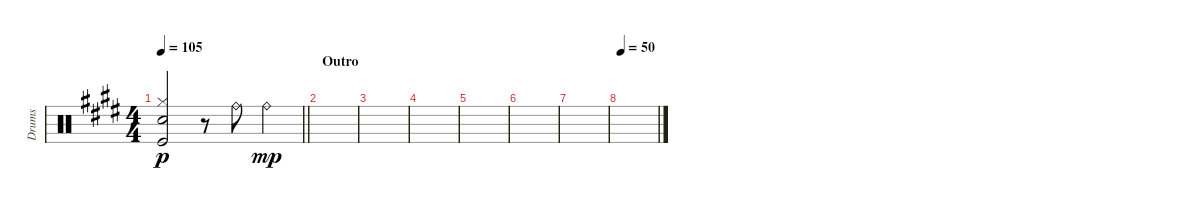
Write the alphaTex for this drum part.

\track ("Drums" "Drums") {instrument percussion}
\staff {score}
\articulation defaults
\ts (4 4)
\tempo 105
\clef neutral
\barLineRight lightlight
\ks e
("Snare (hit) 2" "Hi-Hat (closed)" "Kick (hit)").2{dy p} r.8 "Ride (bell)".8 "Ride (bell)".4{dy mp} |
\section ("" "Outro")
|
|
|
|
|
|
\tempo 50
